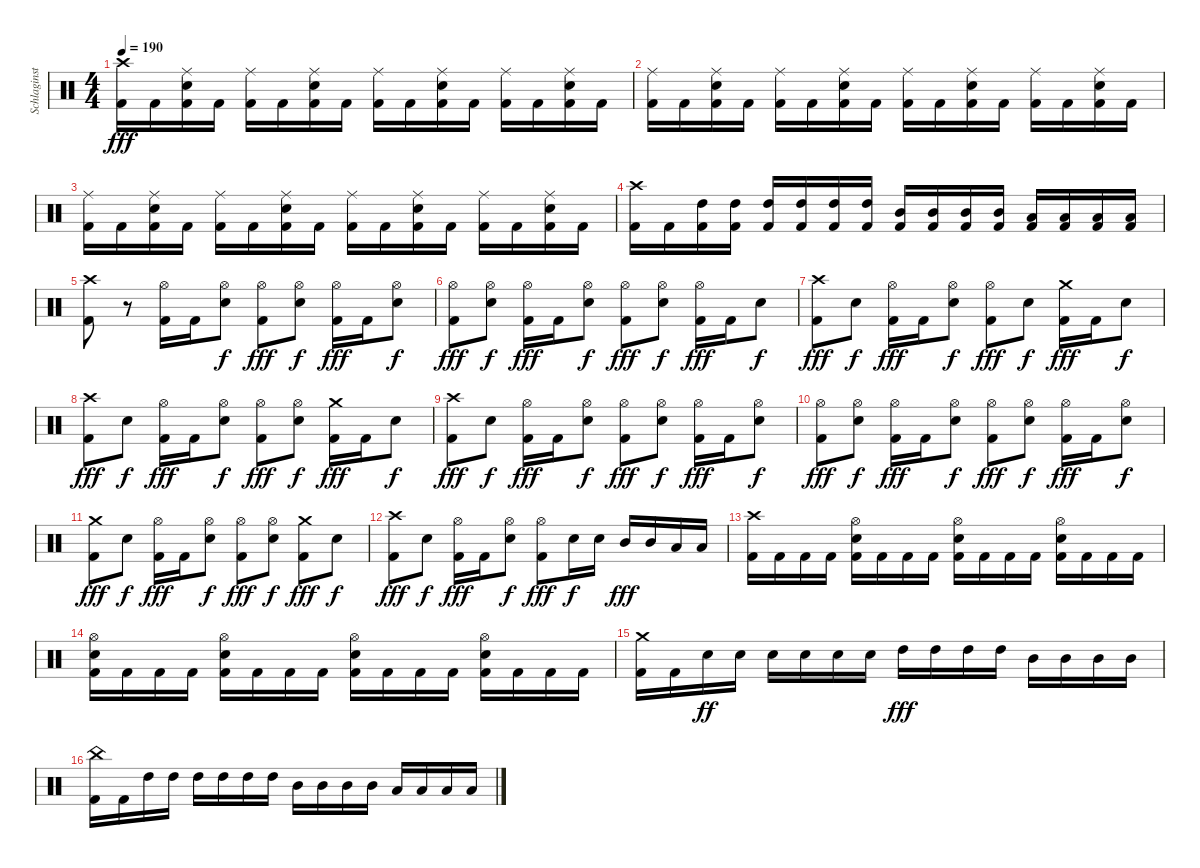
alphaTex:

\track ("Schlaginstrumente - Auswahl" "Schlaginst") {instrument percussion}
\staff {score}
\articulation defaults
\ts (4 4)
\tempo 190
\clef neutral
\ks c
("Crash high (hit)" "Kick (hit) 2").16{dy fff} "Kick (hit) 2".16 ("Ride (middle)" "Snare (hit) 2" "Kick (hit) 2").16 "Kick (hit) 2".16 ("Ride (middle)" "Kick (hit) 2").16 "Kick (hit) 2".16 ("Ride (middle)" "Snare (hit) 2" "Kick (hit) 2").16 "Kick (hit) 2".16 ("Ride (middle)" "Kick (hit) 2").16 "Kick (hit) 2".16 ("Ride (middle)" "Snare (hit) 2" "Kick (hit) 2").16 "Kick (hit) 2".16 ("Ride (middle)" "Kick (hit) 2").16 "Kick (hit) 2".16 ("Ride (middle)" "Snare (hit) 2" "Kick (hit) 2").16 "Kick (hit) 2".16 |
("Ride (middle)" "Kick (hit) 2").16 "Kick (hit) 2".16 ("Ride (middle)" "Snare (hit) 2" "Kick (hit) 2").16 "Kick (hit) 2".16 ("Ride (middle)" "Kick (hit) 2").16 "Kick (hit) 2".16 ("Ride (middle)" "Snare (hit) 2" "Kick (hit) 2").16 "Kick (hit) 2".16 ("Ride (middle)" "Kick (hit) 2").16 "Kick (hit) 2".16 ("Ride (middle)" "Snare (hit) 2" "Kick (hit) 2").16 "Kick (hit) 2".16 ("Ride (middle)" "Kick (hit) 2").16 "Kick (hit) 2".16 ("Ride (middle)" "Snare (hit) 2" "Kick (hit) 2").16 "Kick (hit) 2".16 |
("Ride (middle)" "Kick (hit) 2").16 "Kick (hit) 2".16 ("Ride (middle)" "Snare (hit) 2" "Kick (hit) 2").16 "Kick (hit) 2".16 ("Ride (middle)" "Kick (hit) 2").16 "Kick (hit) 2".16 ("Ride (middle)" "Snare (hit) 2" "Kick (hit) 2").16 "Kick (hit) 2".16 ("Ride (middle)" "Kick (hit) 2").16 "Kick (hit) 2".16 ("Ride (middle)" "Snare (hit) 2" "Kick (hit) 2").16 "Kick (hit) 2".16 ("Ride (middle)" "Kick (hit) 2").16 "Kick (hit) 2".16 ("Ride (middle)" "Snare (hit) 2" "Kick (hit) 2").16 "Kick (hit) 2".16 |
("Crash high (hit)" "Kick (hit) 2").16 "Kick (hit) 2".16 ("High Tom (hit)" "Kick (hit) 2").16 ("High Tom (hit)" "Kick (hit) 2").16 ("High Tom (hit)" "Kick (hit) 2").16 ("High Tom (hit)" "Kick (hit) 2").16 ("High Tom (hit)" "Kick (hit) 2").16 ("High Tom (hit)" "Kick (hit) 2").16 ("Mid Tom (hit)" "Kick (hit) 2").16 ("Mid Tom (hit)" "Kick (hit) 2").16 ("Mid Tom (hit)" "Kick (hit) 2").16 ("Mid Tom (hit)" "Kick (hit) 2").16 ("Low Tom (hit)" "Kick (hit) 2").16 ("Low Tom (hit)" "Kick (hit) 2").16 ("Low Tom (hit)" "Kick (hit) 2").16 ("Low Tom (hit)" "Kick (hit) 2").16 |
("Crash high (hit)" "Kick (hit) 2").8 r.8 ("Hi-Hat (open)" "Kick (hit) 2").16 "Kick (hit) 2".16 ("Hi-Hat (open)" "Snare (hit) 2").8{dy f} ("Hi-Hat (open)" "Kick (hit) 2").8{dy fff} ("Hi-Hat (open)" "Snare (hit) 2").8{dy f} ("Hi-Hat (open)" "Kick (hit) 2").16{dy fff} "Kick (hit) 2".16 ("Hi-Hat (open)" "Snare (hit) 2").8{dy f} |
("Hi-Hat (open)" "Kick (hit) 2").8{dy fff} ("Hi-Hat (open)" "Snare (hit) 2").8{dy f} ("Hi-Hat (open)" "Kick (hit) 2").16{dy fff} "Kick (hit) 2".16 ("Hi-Hat (open)" "Snare (hit) 2").8{dy f} ("Hi-Hat (open)" "Kick (hit) 2").8{dy fff} ("Hi-Hat (open)" "Snare (hit) 2").8{dy f} ("Hi-Hat (open)" "Kick (hit) 2").16{dy fff} "Kick (hit) 2".16 "Snare (hit) 2".8{dy f} |
("Crash high (hit)" "Kick (hit) 2").8{dy fff} "Snare (hit) 2".8{dy f} ("Hi-Hat (open)" "Kick (hit) 2").16{dy fff} "Kick (hit) 2".16 ("Hi-Hat (open)" "Snare (hit) 2").8{dy f} ("Hi-Hat (open)" "Kick (hit) 2").8{dy fff} "Snare (hit) 2".8{dy f} ("Crash medium (hit)" "Kick (hit) 2").16{dy fff} "Kick (hit) 2".16 "Snare (hit) 2".8{dy f} |
("Crash high (hit)" "Kick (hit) 2").8{dy fff} "Snare (hit) 2".8{dy f} ("Hi-Hat (open)" "Kick (hit) 2").16{dy fff} "Kick (hit) 2".16 ("Hi-Hat (open)" "Snare (hit) 2").8{dy f} ("Hi-Hat (open)" "Kick (hit) 2").8{dy fff} ("Hi-Hat (open)" "Snare (hit) 2").8{dy f} ("Crash medium (hit)" "Kick (hit) 2").16{dy fff} "Kick (hit) 2".16 "Snare (hit) 2".8{dy f} |
("Crash high (hit)" "Kick (hit) 2").8{dy fff} "Snare (hit) 2".8{dy f} ("Hi-Hat (open)" "Kick (hit) 2").16{dy fff} "Kick (hit) 2".16 ("Hi-Hat (open)" "Snare (hit) 2").8{dy f} ("Hi-Hat (open)" "Kick (hit) 2").8{dy fff} ("Hi-Hat (open)" "Snare (hit) 2").8{dy f} ("Hi-Hat (open)" "Kick (hit) 2").16{dy fff} "Kick (hit) 2".16 ("Hi-Hat (open)" "Snare (hit) 2").8{dy f} |
("Hi-Hat (open)" "Kick (hit) 2").8{dy fff} ("Hi-Hat (open)" "Snare (hit) 2").8{dy f} ("Hi-Hat (open)" "Kick (hit) 2").16{dy fff} "Kick (hit) 2".16 ("Hi-Hat (open)" "Snare (hit) 2").8{dy f} ("Hi-Hat (open)" "Kick (hit) 2").8{dy fff} ("Hi-Hat (open)" "Snare (hit) 2").8{dy f} ("Hi-Hat (open)" "Kick (hit) 2").16{dy fff} "Kick (hit) 2".16 ("Hi-Hat (open)" "Snare (hit) 2").8{dy f} |
("Crash medium (hit)" "Kick (hit) 2").8{dy fff} "Snare (hit) 2".8{dy f} ("Hi-Hat (open)" "Kick (hit) 2").16{dy fff} "Kick (hit) 2".16 ("Hi-Hat (open)" "Snare (hit) 2").8{dy f} ("Hi-Hat (open)" "Kick (hit) 2").8{dy fff} ("Hi-Hat (open)" "Snare (hit) 2").8{dy f} ("Crash medium (hit)" "Kick (hit) 2").8{dy fff} "Snare (hit) 2".8{dy f} |
("Crash high (hit)" "Kick (hit) 2").8{dy fff} "Snare (hit) 2".8{dy f} ("Hi-Hat (open)" "Kick (hit) 2").16{dy fff} "Kick (hit) 2".16 ("Hi-Hat (open)" "Snare (hit) 2").8{dy f} ("Hi-Hat (open)" "Kick (hit) 2").8{dy fff} "Snare (hit) 2".16{dy f} "Snare (hit) 2".16 "Mid Tom (hit)".16{dy fff} "Mid Tom (hit)".16 "Low Tom (hit)".16 "Low Tom (hit)".16 |
("Crash high (hit)" "Kick (hit) 2").16 "Kick (hit) 2".16 "Kick (hit) 2".16 "Kick (hit) 2".16 ("Hi-Hat (open)" "Snare (hit) 2" "Kick (hit) 2").16 "Kick (hit) 2".16 "Kick (hit) 2".16 "Kick (hit) 2".16 ("Hi-Hat (open)" "Snare (hit) 2" "Kick (hit) 2").16 "Kick (hit) 2".16 "Kick (hit) 2".16 "Kick (hit) 2".16 ("Hi-Hat (open)" "Snare (hit) 2" "Kick (hit) 2").16 "Kick (hit) 2".16 "Kick (hit) 2".16 "Kick (hit) 2".16 |
("Hi-Hat (open)" "Snare (hit) 2" "Kick (hit) 2").16 "Kick (hit) 2".16 "Kick (hit) 2".16 "Kick (hit) 2".16 ("Hi-Hat (open)" "Snare (hit) 2" "Kick (hit) 2").16 "Kick (hit) 2".16 "Kick (hit) 2".16 "Kick (hit) 2".16 ("Hi-Hat (open)" "Snare (hit) 2" "Kick (hit) 2").16 "Kick (hit) 2".16 "Kick (hit) 2".16 "Kick (hit) 2".16 ("Hi-Hat (open)" "Snare (hit) 2" "Kick (hit) 2").16 "Kick (hit) 2".16 "Kick (hit) 2".16 "Kick (hit) 2".16 |
("Crash medium (hit)" "Kick (hit) 2").16 "Kick (hit) 2".16 "Snare (hit) 2".16{dy ff} "Snare (hit) 2".16 "Snare (hit) 2".16 "Snare (hit) 2".16 "Snare (hit) 2".16 "Snare (hit) 2".16 "High Tom (hit)".16{dy fff} "High Tom (hit)".16 "High Tom (hit)".16 "High Tom (hit)".16 "Mid Tom (hit)".16 "Mid Tom (hit)".16 "Mid Tom (hit)".16 "Mid Tom (hit)".16 |
("China (hit)" "Kick (hit) 2").16 "Kick (hit) 2".16 "High Tom (hit)".16 "High Tom (hit)".16 "High Tom (hit)".16 "High Tom (hit)".16 "High Tom (hit)".16 "High Tom (hit)".16 "Mid Tom (hit)".16 "Mid Tom (hit)".16 "Mid Tom (hit)".16 "Mid Tom (hit)".16 "Low Tom (hit)".16 "Low Tom (hit)".16 "Low Tom (hit)".16 "Low Tom (hit)".16
